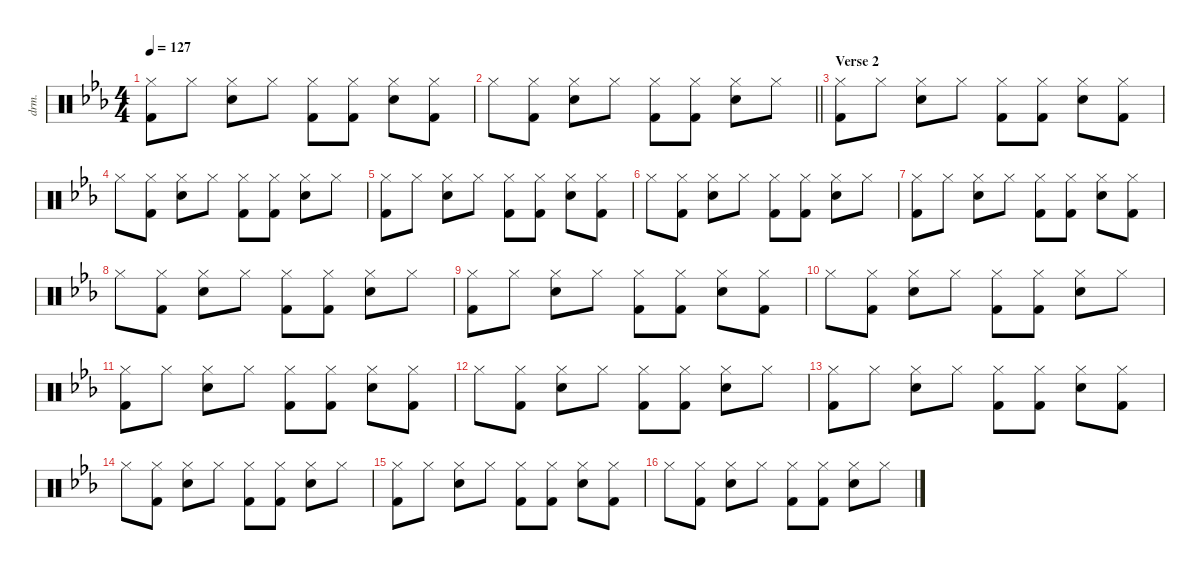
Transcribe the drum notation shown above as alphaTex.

\defaultSystemsLayout 4
\hideDynamics
\bracketExtendMode nobrackets
\otherSystemsTrackNameOrientation horizontal
\track ("Drums" "drm.") {defaultSystemsLayout 4 instrument percussion}
\staff {score}
\articulation defaults
\ts (4 4)
\tempo 127
\clef neutral
\ks eb
("Hi-Hat (closed)"{acc forcenatural} "Kick (hit) 2"{acc forcenatural}).8{dy f beam Down} "Hi-Hat (closed)"{acc forcenatural}.8{beam Down} ("Hi-Hat (closed)"{acc forcenatural} "Snare (hit) 2"{acc forcenatural}).8{beam Down} "Hi-Hat (closed)"{acc forcenatural}.8{beam Down} ("Hi-Hat (closed)"{acc forcenatural} "Kick (hit) 2"{acc forcenatural}).8{beam Down} ("Hi-Hat (closed)"{acc forcenatural} "Kick (hit) 2"{acc forcenatural}).8{beam Down} ("Hi-Hat (closed)"{acc forcenatural} "Snare (hit) 2"{acc forcenatural}).8{beam Down} ("Hi-Hat (closed)"{acc forcenatural} "Kick (hit) 2"{acc forcenatural}).8{beam Down} |
\barLineRight lightlight "Hi-Hat (closed)"{acc forcenatural}.8{beam Down}
("Hi-Hat (closed)"{acc forcenatural} "Kick (hit) 2"{acc forcenatural}).8{beam Down} ("Hi-Hat (closed)"{acc forcenatural} "Snare (hit) 2"{acc forcenatural}).8{beam Down} "Hi-Hat (closed)"{acc forcenatural}.8{beam Down} ("Hi-Hat (closed)"{acc forcenatural} "Kick (hit) 2"{acc forcenatural}).8{beam Down} ("Hi-Hat (closed)"{acc forcenatural} "Kick (hit) 2"{acc forcenatural}).8{beam Down} ("Hi-Hat (closed)"{acc forcenatural} "Snare (hit) 2"{acc forcenatural}).8{beam Down} "Hi-Hat (closed)"{acc forcenatural}.8{beam Down} |
\section ("" "Verse 2")
("Hi-Hat (closed)"{acc forcenatural} "Kick (hit) 2"{acc forcenatural}).8{beam Down} "Hi-Hat (closed)"{acc forcenatural}.8{beam Down} ("Hi-Hat (closed)"{acc forcenatural} "Snare (hit) 2"{acc forcenatural}).8{beam Down} "Hi-Hat (closed)"{acc forcenatural}.8{beam Down} ("Hi-Hat (closed)"{acc forcenatural} "Kick (hit) 2"{acc forcenatural}).8{beam Down} ("Hi-Hat (closed)"{acc forcenatural} "Kick (hit) 2"{acc forcenatural}).8{beam Down} ("Hi-Hat (closed)"{acc forcenatural} "Snare (hit) 2"{acc forcenatural}).8{beam Down} ("Hi-Hat (closed)"{acc forcenatural} "Kick (hit) 2"{acc forcenatural}).8{beam Down} |
"Hi-Hat (closed)"{acc forcenatural}.8{beam Down} ("Hi-Hat (closed)"{acc forcenatural} "Kick (hit) 2"{acc forcenatural}).8{beam Down} ("Hi-Hat (closed)"{acc forcenatural} "Snare (hit) 2"{acc forcenatural}).8{beam Down} "Hi-Hat (closed)"{acc forcenatural}.8{beam Down} ("Hi-Hat (closed)"{acc forcenatural} "Kick (hit) 2"{acc forcenatural}).8{beam Down} ("Hi-Hat (closed)"{acc forcenatural} "Kick (hit) 2"{acc forcenatural}).8{beam Down} ("Hi-Hat (closed)"{acc forcenatural} "Snare (hit) 2"{acc forcenatural}).8{beam Down} "Hi-Hat (closed)"{acc forcenatural}.8{beam Down} |
("Hi-Hat (closed)"{acc forcenatural} "Kick (hit) 2"{acc forcenatural}).8{beam Down} "Hi-Hat (closed)"{acc forcenatural}.8{beam Down} ("Hi-Hat (closed)"{acc forcenatural} "Snare (hit) 2"{acc forcenatural}).8{beam Down} "Hi-Hat (closed)"{acc forcenatural}.8{beam Down} ("Hi-Hat (closed)"{acc forcenatural} "Kick (hit) 2"{acc forcenatural}).8{beam Down} ("Hi-Hat (closed)"{acc forcenatural} "Kick (hit) 2"{acc forcenatural}).8{beam Down} ("Hi-Hat (closed)"{acc forcenatural} "Snare (hit) 2"{acc forcenatural}).8{beam Down} ("Hi-Hat (closed)"{acc forcenatural} "Kick (hit) 2"{acc forcenatural}).8{beam Down} |
"Hi-Hat (closed)"{acc forcenatural}.8{beam Down} ("Hi-Hat (closed)"{acc forcenatural} "Kick (hit) 2"{acc forcenatural}).8{beam Down} ("Hi-Hat (closed)"{acc forcenatural} "Snare (hit) 2"{acc forcenatural}).8{beam Down} "Hi-Hat (closed)"{acc forcenatural}.8{beam Down} ("Hi-Hat (closed)"{acc forcenatural} "Kick (hit) 2"{acc forcenatural}).8{beam Down} ("Hi-Hat (closed)"{acc forcenatural} "Kick (hit) 2"{acc forcenatural}).8{beam Down} ("Hi-Hat (closed)"{acc forcenatural} "Snare (hit) 2"{acc forcenatural}).8{beam Down} "Hi-Hat (closed)"{acc forcenatural}.8{beam Down} |
("Hi-Hat (closed)"{acc forcenatural} "Kick (hit) 2"{acc forcenatural}).8{beam Down} "Hi-Hat (closed)"{acc forcenatural}.8{beam Down} ("Hi-Hat (closed)"{acc forcenatural} "Snare (hit) 2"{acc forcenatural}).8{beam Down} "Hi-Hat (closed)"{acc forcenatural}.8{beam Down} ("Hi-Hat (closed)"{acc forcenatural} "Kick (hit) 2"{acc forcenatural}).8{beam Down} ("Hi-Hat (closed)"{acc forcenatural} "Kick (hit) 2"{acc forcenatural}).8{beam Down} ("Hi-Hat (closed)"{acc forcenatural} "Snare (hit) 2"{acc forcenatural}).8{beam Down} ("Hi-Hat (closed)"{acc forcenatural} "Kick (hit) 2"{acc forcenatural}).8{beam Down} |
"Hi-Hat (closed)"{acc forcenatural}.8{beam Down} ("Hi-Hat (closed)"{acc forcenatural} "Kick (hit) 2"{acc forcenatural}).8{beam Down} ("Hi-Hat (closed)"{acc forcenatural} "Snare (hit) 2"{acc forcenatural}).8{beam Down} "Hi-Hat (closed)"{acc forcenatural}.8{beam Down} ("Hi-Hat (closed)"{acc forcenatural} "Kick (hit) 2"{acc forcenatural}).8{beam Down} ("Hi-Hat (closed)"{acc forcenatural} "Kick (hit) 2"{acc forcenatural}).8{beam Down} ("Hi-Hat (closed)"{acc forcenatural} "Snare (hit) 2"{acc forcenatural}).8{beam Down} "Hi-Hat (closed)"{acc forcenatural}.8{beam Down} |
("Hi-Hat (closed)"{acc forcenatural} "Kick (hit) 2"{acc forcenatural}).8{beam Down} "Hi-Hat (closed)"{acc forcenatural}.8{beam Down} ("Hi-Hat (closed)"{acc forcenatural} "Snare (hit) 2"{acc forcenatural}).8{beam Down} "Hi-Hat (closed)"{acc forcenatural}.8{beam Down} ("Hi-Hat (closed)"{acc forcenatural} "Kick (hit) 2"{acc forcenatural}).8{beam Down} ("Hi-Hat (closed)"{acc forcenatural} "Kick (hit) 2"{acc forcenatural}).8{beam Down} ("Hi-Hat (closed)"{acc forcenatural} "Snare (hit) 2"{acc forcenatural}).8{beam Down} ("Hi-Hat (closed)"{acc forcenatural} "Kick (hit) 2"{acc forcenatural}).8{beam Down} |
"Hi-Hat (closed)"{acc forcenatural}.8{beam Down} ("Hi-Hat (closed)"{acc forcenatural} "Kick (hit) 2"{acc forcenatural}).8{beam Down} ("Hi-Hat (closed)"{acc forcenatural} "Snare (hit) 2"{acc forcenatural}).8{beam Down} "Hi-Hat (closed)"{acc forcenatural}.8{beam Down} ("Hi-Hat (closed)"{acc forcenatural} "Kick (hit) 2"{acc forcenatural}).8{beam Down} ("Hi-Hat (closed)"{acc forcenatural} "Kick (hit) 2"{acc forcenatural}).8{beam Down} ("Hi-Hat (closed)"{acc forcenatural} "Snare (hit) 2"{acc forcenatural}).8{beam Down} "Hi-Hat (closed)"{acc forcenatural}.8{beam Down} |
("Hi-Hat (closed)"{acc forcenatural} "Kick (hit) 2"{acc forcenatural}).8{beam Down} "Hi-Hat (closed)"{acc forcenatural}.8{beam Down} ("Hi-Hat (closed)"{acc forcenatural} "Snare (hit) 2"{acc forcenatural}).8{beam Down} "Hi-Hat (closed)"{acc forcenatural}.8{beam Down} ("Hi-Hat (closed)"{acc forcenatural} "Kick (hit) 2"{acc forcenatural}).8{beam Down} ("Hi-Hat (closed)"{acc forcenatural} "Kick (hit) 2"{acc forcenatural}).8{beam Down} ("Hi-Hat (closed)"{acc forcenatural} "Snare (hit) 2"{acc forcenatural}).8{beam Down} ("Hi-Hat (closed)"{acc forcenatural} "Kick (hit) 2"{acc forcenatural}).8{beam Down} |
"Hi-Hat (closed)"{acc forcenatural}.8{beam Down} ("Hi-Hat (closed)"{acc forcenatural} "Kick (hit) 2"{acc forcenatural}).8{beam Down} ("Hi-Hat (closed)"{acc forcenatural} "Snare (hit) 2"{acc forcenatural}).8{beam Down} "Hi-Hat (closed)"{acc forcenatural}.8{beam Down} ("Hi-Hat (closed)"{acc forcenatural} "Kick (hit) 2"{acc forcenatural}).8{beam Down} ("Hi-Hat (closed)"{acc forcenatural} "Kick (hit) 2"{acc forcenatural}).8{beam Down} ("Hi-Hat (closed)"{acc forcenatural} "Snare (hit) 2"{acc forcenatural}).8{beam Down} "Hi-Hat (closed)"{acc forcenatural}.8{beam Down} |
("Hi-Hat (closed)"{acc forcenatural} "Kick (hit) 2"{acc forcenatural}).8{beam Down} "Hi-Hat (closed)"{acc forcenatural}.8{beam Down} ("Hi-Hat (closed)"{acc forcenatural} "Snare (hit) 2"{acc forcenatural}).8{beam Down} "Hi-Hat (closed)"{acc forcenatural}.8{beam Down} ("Hi-Hat (closed)"{acc forcenatural} "Kick (hit) 2"{acc forcenatural}).8{beam Down} ("Hi-Hat (closed)"{acc forcenatural} "Kick (hit) 2"{acc forcenatural}).8{beam Down} ("Hi-Hat (closed)"{acc forcenatural} "Snare (hit) 2"{acc forcenatural}).8{beam Down} ("Hi-Hat (closed)"{acc forcenatural} "Kick (hit) 2"{acc forcenatural}).8{beam Down} |
"Hi-Hat (closed)"{acc forcenatural}.8{beam Down} ("Hi-Hat (closed)"{acc forcenatural} "Kick (hit) 2"{acc forcenatural}).8{beam Down} ("Hi-Hat (closed)"{acc forcenatural} "Snare (hit) 2"{acc forcenatural}).8{beam Down} "Hi-Hat (closed)"{acc forcenatural}.8{beam Down} ("Hi-Hat (closed)"{acc forcenatural} "Kick (hit) 2"{acc forcenatural}).8{beam Down} ("Hi-Hat (closed)"{acc forcenatural} "Kick (hit) 2"{acc forcenatural}).8{beam Down} ("Hi-Hat (closed)"{acc forcenatural} "Snare (hit) 2"{acc forcenatural}).8{beam Down} "Hi-Hat (closed)"{acc forcenatural}.8{beam Down} |
("Hi-Hat (closed)"{acc forcenatural} "Kick (hit) 2"{acc forcenatural}).8{beam Down} "Hi-Hat (closed)"{acc forcenatural}.8{beam Down} ("Hi-Hat (closed)"{acc forcenatural} "Snare (hit) 2"{acc forcenatural}).8{beam Down} "Hi-Hat (closed)"{acc forcenatural}.8{beam Down} ("Hi-Hat (closed)"{acc forcenatural} "Kick (hit) 2"{acc forcenatural}).8{beam Down} ("Hi-Hat (closed)"{acc forcenatural} "Kick (hit) 2"{acc forcenatural}).8{beam Down} ("Hi-Hat (closed)"{acc forcenatural} "Snare (hit) 2"{acc forcenatural}).8{beam Down} ("Hi-Hat (closed)"{acc forcenatural} "Kick (hit) 2"{acc forcenatural}).8{beam Down} |
"Hi-Hat (closed)"{acc forcenatural}.8{beam Down} ("Hi-Hat (closed)"{acc forcenatural} "Kick (hit) 2"{acc forcenatural}).8{beam Down} ("Hi-Hat (closed)"{acc forcenatural} "Snare (hit) 2"{acc forcenatural}).8{beam Down} "Hi-Hat (closed)"{acc forcenatural}.8{beam Down} ("Hi-Hat (closed)"{acc forcenatural} "Kick (hit) 2"{acc forcenatural}).8{beam Down} ("Hi-Hat (closed)"{acc forcenatural} "Kick (hit) 2"{acc forcenatural}).8{beam Down} ("Hi-Hat (closed)"{acc forcenatural} "Snare (hit) 2"{acc forcenatural}).8{beam Down} "Hi-Hat (closed)"{acc forcenatural}.8{beam Down}
